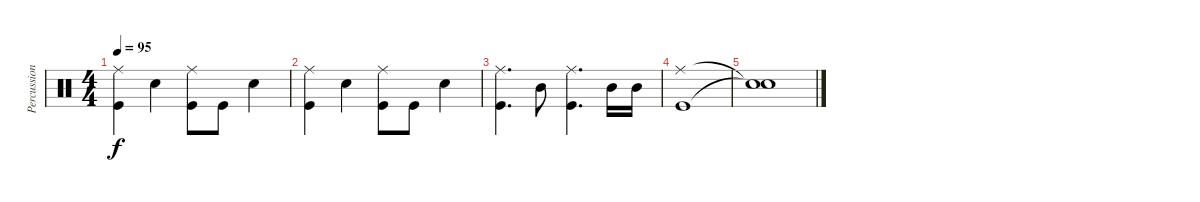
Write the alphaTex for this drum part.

\track ("Percussion" "Percussion") {instrument percussion}
\staff {score}
\articulation defaults
\ts (4 4)
\tempo 95
\clef neutral
\ks c
("Ride (middle)" "Kick (hit)").4{dy f} "Electric Snare (hit)".4 ("Ride (middle)" "Kick (hit)").8 "Kick (hit)".8 "Electric Snare (hit)".4 |
("Ride (middle)" "Kick (hit)").4 "Electric Snare (hit)".4 ("Ride (middle)" "Kick (hit)").8 "Kick (hit)".8 "Electric Snare (hit)".4 |
("Ride (middle)" "Kick (hit)").4{d} "Mid Tom (hit)".8 ("Ride (middle)" "Kick (hit)").4{d} "Mid Tom (hit)".16 "Mid Tom (hit)".16 |
("Ride (middle)" "Kick (hit)").1 |
("Snare (hit)"{t} "Snare (hit)"{t}).1
